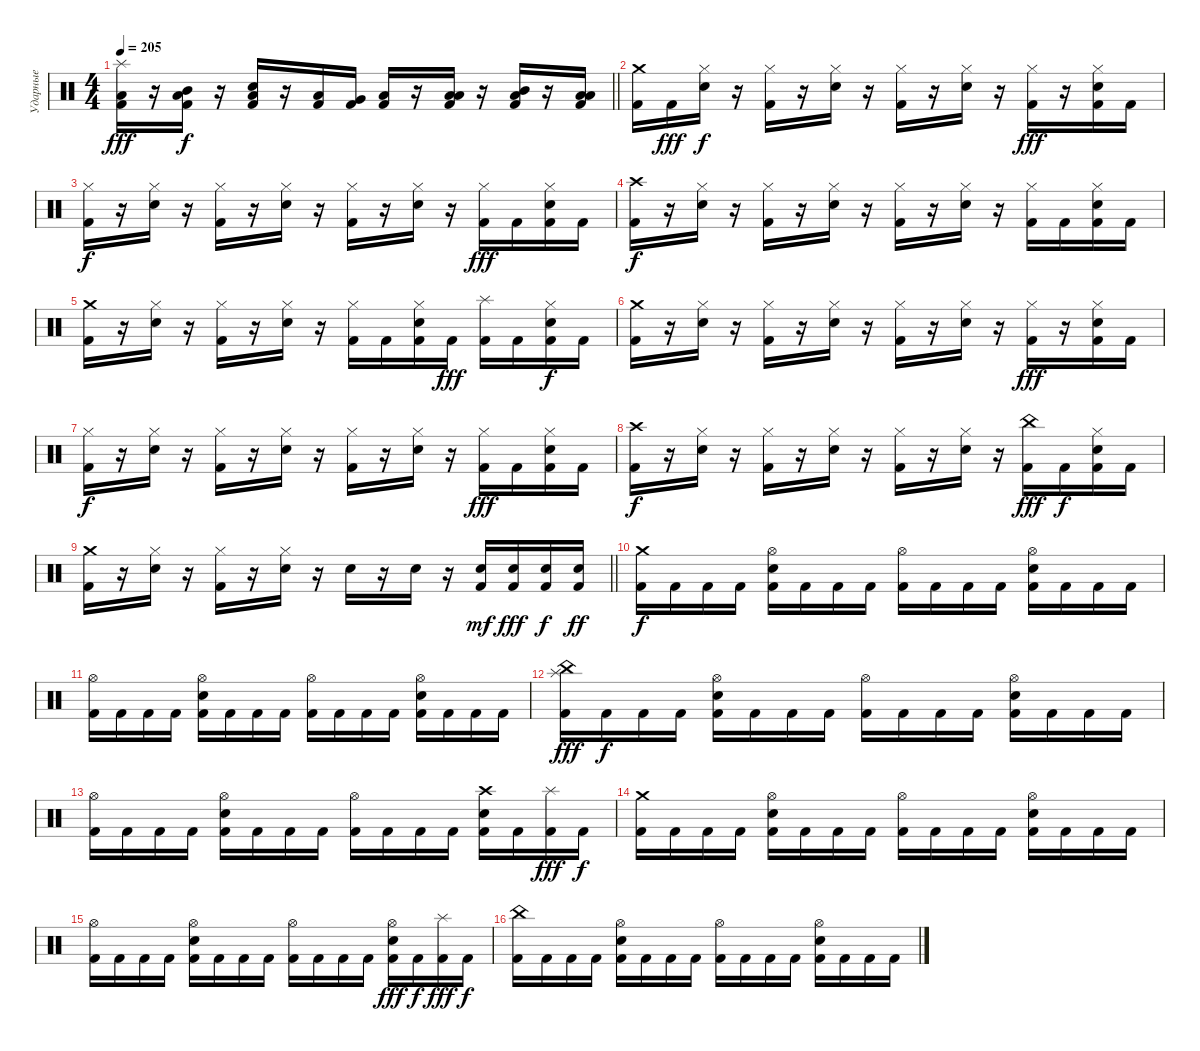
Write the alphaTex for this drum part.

\track ("Ударные" "Ударные") {instrument percussion}
\staff {score}
\articulation defaults
\ts (4 4)
\tempo 205
\clef neutral
\barLineRight lightlight
\ks c
("Splash (hit)" "Low Floor Tom (hit)" "Kick (hit) 2").16{dy fff} r.16 ("Mid Tom (hit)" "Low Floor Tom (hit)" "Kick (hit) 2").16{dy f} r.16 ("Snare (hit) 2" "Low Floor Tom (hit)" "Kick (hit) 2").16 r.16 ("Low Tom (hit)" "Kick (hit) 2").16 ("Very Low Tom (hit)" "Kick (hit) 2").16 ("Low Floor Tom (hit)" "Kick (hit) 2").16 r.16 ("Low Tom (hit)" "Low Floor Tom (hit)" "Kick (hit) 2").16 r.16 ("Mid Tom (hit)" "Low Floor Tom (hit)" "Kick (hit) 2").16 r.16 ("Low Tom (hit)" "Low Floor Tom (hit)" "Kick (hit) 2").16 |
("Crash medium (hit)" "Kick (hit) 2").16 "Kick (hit) 2".16{dy fff} ("Hi-Hat (closed)" "Snare (hit) 2").16{dy f} r.16 ("Hi-Hat (closed)" "Kick (hit) 2").16 r.16 ("Hi-Hat (closed)" "Snare (hit) 2").16 r.16 ("Hi-Hat (closed)" "Kick (hit) 2").16 r.16 ("Hi-Hat (closed)" "Snare (hit) 2").16 r.16 ("Hi-Hat (closed)" "Kick (hit) 2").16{dy fff} r.16 ("Hi-Hat (closed)" "Snare (hit) 2" "Kick (hit) 2").16 "Kick (hit) 2".16 |
("Hi-Hat (closed)" "Kick (hit) 2").16{dy f} r.16 ("Hi-Hat (closed)" "Snare (hit) 2").16 r.16 ("Hi-Hat (closed)" "Kick (hit) 2").16 r.16 ("Hi-Hat (closed)" "Snare (hit) 2").16 r.16 ("Hi-Hat (closed)" "Kick (hit) 2").16 r.16 ("Hi-Hat (closed)" "Snare (hit) 2").16 r.16 ("Hi-Hat (closed)" "Kick (hit) 2").16{dy fff} "Kick (hit) 2".16 ("Hi-Hat (closed)" "Snare (hit) 2" "Kick (hit) 2").16 "Kick (hit) 2".16 |
("Crash high (hit)" "Kick (hit) 2").16{dy f} r.16 ("Hi-Hat (closed)" "Snare (hit) 2").16 r.16 ("Hi-Hat (closed)" "Kick (hit) 2").16 r.16 ("Hi-Hat (closed)" "Snare (hit) 2").16 r.16 ("Hi-Hat (closed)" "Kick (hit) 2").16 r.16 ("Hi-Hat (closed)" "Snare (hit) 2").16 r.16 ("Hi-Hat (closed)" "Kick (hit) 2").16 "Kick (hit) 2".16 ("Hi-Hat (closed)" "Snare (hit) 2" "Kick (hit) 2").16 "Kick (hit) 2".16 |
("Crash medium (hit)" "Kick (hit) 2").16 r.16 ("Hi-Hat (closed)" "Snare (hit) 2").16 r.16 ("Hi-Hat (closed)" "Kick (hit) 2").16 r.16 ("Hi-Hat (closed)" "Snare (hit) 2").16 r.16 ("Hi-Hat (closed)" "Kick (hit) 2").16 "Kick (hit) 2".16 ("Hi-Hat (closed)" "Snare (hit) 2" "Kick (hit) 2").16 "Kick (hit) 2".16{dy fff} ("Splash (hit)" "Kick (hit) 2").16 "Kick (hit) 2".16 ("Hi-Hat (closed)" "Snare (hit) 2" "Kick (hit) 2").16{dy f} "Kick (hit) 2".16 |
("Crash medium (hit)" "Kick (hit) 2").16 r.16 ("Hi-Hat (closed)" "Snare (hit) 2").16 r.16 ("Hi-Hat (closed)" "Kick (hit) 2").16 r.16 ("Hi-Hat (closed)" "Snare (hit) 2").16 r.16 ("Hi-Hat (closed)" "Kick (hit) 2").16 r.16 ("Hi-Hat (closed)" "Snare (hit) 2").16 r.16 ("Hi-Hat (closed)" "Kick (hit) 2").16{dy fff} r.16 ("Hi-Hat (closed)" "Snare (hit) 2" "Kick (hit) 2").16 "Kick (hit) 2".16 |
("Hi-Hat (closed)" "Kick (hit) 2").16{dy f} r.16 ("Hi-Hat (closed)" "Snare (hit) 2").16 r.16 ("Hi-Hat (closed)" "Kick (hit) 2").16 r.16 ("Hi-Hat (closed)" "Snare (hit) 2").16 r.16 ("Hi-Hat (closed)" "Kick (hit) 2").16 r.16 ("Hi-Hat (closed)" "Snare (hit) 2").16 r.16 ("Hi-Hat (closed)" "Kick (hit) 2").16{dy fff} "Kick (hit) 2".16 ("Hi-Hat (closed)" "Snare (hit) 2" "Kick (hit) 2").16 "Kick (hit) 2".16 |
("Crash high (hit)" "Kick (hit) 2").16{dy f} r.16 ("Hi-Hat (closed)" "Snare (hit) 2").16 r.16 ("Hi-Hat (closed)" "Kick (hit) 2").16 r.16 ("Hi-Hat (closed)" "Snare (hit) 2").16 r.16 ("Hi-Hat (closed)" "Kick (hit) 2").16 r.16 ("Hi-Hat (closed)" "Snare (hit) 2").16 r.16 ("China (hit)" "Kick (hit) 2").16{dy fff} "Kick (hit) 2".16{dy f} ("Hi-Hat (closed)" "Snare (hit) 2" "Kick (hit) 2").16 "Kick (hit) 2".16 |
\barLineRight lightlight
("Crash medium (hit)" "Kick (hit) 2").16 r.16 ("Hi-Hat (closed)" "Snare (hit) 2").16 r.16 ("Hi-Hat (closed)" "Kick (hit) 2").16 r.16 ("Hi-Hat (closed)" "Snare (hit) 2").16 r.16 "Snare (hit) 2".16 r.16 "Snare (hit) 2".16 r.16 ("Snare (hit) 2" "Kick (hit) 2").16{dy mf} ("Snare (hit) 2" "Kick (hit) 2").16{dy fff} ("Snare (hit) 2" "Kick (hit) 2").16{dy f} ("Snare (hit) 2" "Kick (hit) 2").16{dy ff} |
("Crash medium (hit)" "Kick (hit) 2").16{dy f} "Kick (hit) 2".16 "Kick (hit) 2".16 "Kick (hit) 2".16 ("Hi-Hat (open)" "Snare (hit) 2" "Kick (hit) 2").16 "Kick (hit) 2".16 "Kick (hit) 2".16 "Kick (hit) 2".16 ("Hi-Hat (open)" "Kick (hit) 2").16 "Kick (hit) 2".16 "Kick (hit) 2".16 "Kick (hit) 2".16 ("Hi-Hat (open)" "Snare (hit) 2" "Kick (hit) 2").16 "Kick (hit) 2".16 "Kick (hit) 2".16 "Kick (hit) 2".16 |
("Hi-Hat (open)" "Kick (hit) 2").16 "Kick (hit) 2".16 "Kick (hit) 2".16 "Kick (hit) 2".16 ("Hi-Hat (open)" "Snare (hit) 2" "Kick (hit) 2").16 "Kick (hit) 2".16 "Kick (hit) 2".16 "Kick (hit) 2".16 ("Hi-Hat (open)" "Kick (hit) 2").16 "Kick (hit) 2".16 "Kick (hit) 2".16 "Kick (hit) 2".16 ("Hi-Hat (open)" "Snare (hit) 2" "Kick (hit) 2").16 "Kick (hit) 2".16 "Kick (hit) 2".16 "Kick (hit) 2".16 |
("China (hit)" "Splash (hit)" "Kick (hit) 2").16{dy fff} "Kick (hit) 2".16{dy f} "Kick (hit) 2".16 "Kick (hit) 2".16 ("Hi-Hat (open)" "Snare (hit) 2" "Kick (hit) 2").16 "Kick (hit) 2".16 "Kick (hit) 2".16 "Kick (hit) 2".16 ("Hi-Hat (open)" "Kick (hit) 2").16 "Kick (hit) 2".16 "Kick (hit) 2".16 "Kick (hit) 2".16 ("Hi-Hat (open)" "Snare (hit) 2" "Kick (hit) 2").16 "Kick (hit) 2".16 "Kick (hit) 2".16 "Kick (hit) 2".16 |
("Hi-Hat (open)" "Kick (hit) 2").16 "Kick (hit) 2".16 "Kick (hit) 2".16 "Kick (hit) 2".16 ("Hi-Hat (open)" "Snare (hit) 2" "Kick (hit) 2").16 "Kick (hit) 2".16 "Kick (hit) 2".16 "Kick (hit) 2".16 ("Hi-Hat (open)" "Kick (hit) 2").16 "Kick (hit) 2".16 "Kick (hit) 2".16 "Kick (hit) 2".16 ("Crash high (hit)" "Snare (hit) 2" "Kick (hit) 2").16 "Kick (hit) 2".16 ("Splash (hit)" "Kick (hit) 2").16{dy fff} "Kick (hit) 2".16{dy f} |
("Crash medium (hit)" "Kick (hit) 2").16 "Kick (hit) 2".16 "Kick (hit) 2".16 "Kick (hit) 2".16 ("Hi-Hat (open)" "Snare (hit) 2" "Kick (hit) 2").16 "Kick (hit) 2".16 "Kick (hit) 2".16 "Kick (hit) 2".16 ("Hi-Hat (open)" "Kick (hit) 2").16 "Kick (hit) 2".16 "Kick (hit) 2".16 "Kick (hit) 2".16 ("Hi-Hat (open)" "Snare (hit) 2" "Kick (hit) 2").16 "Kick (hit) 2".16 "Kick (hit) 2".16 "Kick (hit) 2".16 |
("Hi-Hat (open)" "Kick (hit) 2").16 "Kick (hit) 2".16 "Kick (hit) 2".16 "Kick (hit) 2".16 ("Hi-Hat (open)" "Snare (hit) 2" "Kick (hit) 2").16 "Kick (hit) 2".16 "Kick (hit) 2".16 "Kick (hit) 2".16 ("Hi-Hat (open)" "Kick (hit) 2").16 "Kick (hit) 2".16 "Kick (hit) 2".16 "Kick (hit) 2".16 ("Hi-Hat (open)" "Snare (hit) 2" "Kick (hit) 2").16{dy fff} "Kick (hit) 2".16{dy f} ("Splash (hit)" "Kick (hit) 2").16{dy fff} "Kick (hit) 2".16{dy f} |
("China (hit)" "Kick (hit) 2").16 "Kick (hit) 2".16 "Kick (hit) 2".16 "Kick (hit) 2".16 ("Hi-Hat (open)" "Snare (hit) 2" "Kick (hit) 2").16 "Kick (hit) 2".16 "Kick (hit) 2".16 "Kick (hit) 2".16 ("Hi-Hat (open)" "Kick (hit) 2").16 "Kick (hit) 2".16 "Kick (hit) 2".16 "Kick (hit) 2".16 ("Hi-Hat (open)" "Snare (hit) 2" "Kick (hit) 2").16 "Kick (hit) 2".16 "Kick (hit) 2".16 "Kick (hit) 2".16
